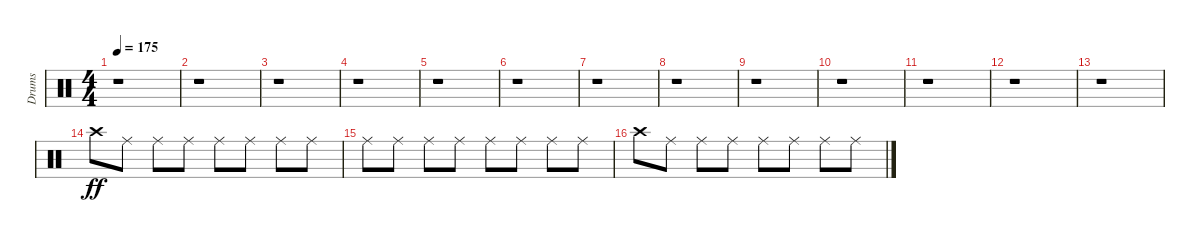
\track ("Drums" "Drums") {instrument percussion}
\staff {score}
\articulation defaults
\ts (4 4)
\tempo 175
\clef neutral
\ks c
r.1{dy f} |
r.1 |
r.1 |
r.1 |
r.1 |
r.1 |
r.1 |
r.1 |
r.1 |
r.1 |
r.1 |
r.1 |
r.1 |
"Crash high (hit)".8{dy ff} "Ride (middle)".8 "Ride (middle)".8 "Ride (middle)".8 "Ride (middle)".8 "Ride (middle)".8 "Ride (middle)".8 "Ride (middle)".8 |
"Ride (middle)".8 "Ride (middle)".8 "Ride (middle)".8 "Ride (middle)".8 "Ride (middle)".8 "Ride (middle)".8 "Ride (middle)".8 "Ride (middle)".8 |
"Crash high (hit)".8 "Ride (middle)".8 "Ride (middle)".8 "Ride (middle)".8 "Ride (middle)".8 "Ride (middle)".8 "Ride (middle)".8 "Ride (middle)".8
